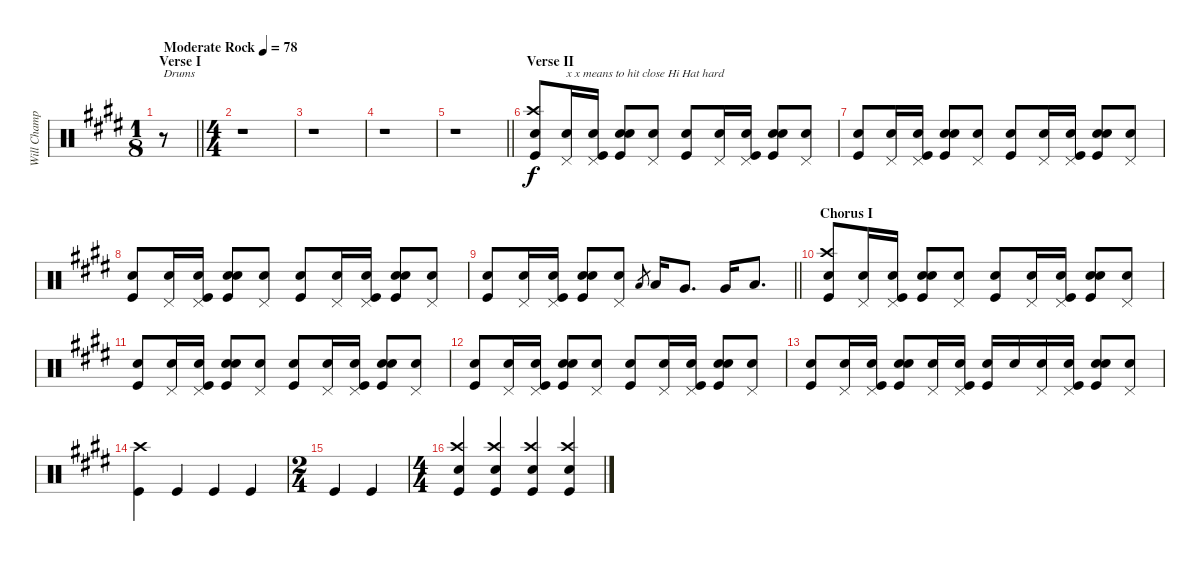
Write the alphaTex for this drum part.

\track ("Will Champion/Drums" "Will Champ") {instrument percussion}
\staff {score}
\articulation defaults
\ts (1 8)
\section ("" "Verse I")
\tempo (78 "Moderate Rock")
\clef neutral
\barLineRight lightlight
\ks c#minor
r.8{txt "Drums" dy f} |
\ts (4 4)
r.1 |
r.1 |
r.1 |
\barLineRight lightlight
r.1 |
\section ("" "Verse II")
("Snare (hit)" "Crash high (hit)" "Kick (hit)").8 ("Pedal Hi-Hat (hit)" "Snare (hit)").16{txt "x x means to hit close Hi Hat hard"} ("Snare (hit)" "Pedal Hi-Hat (hit)" "Kick (hit)").16 ("Snare (hit)" "Snare (hit) 2" "Kick (hit)").8 ("Pedal Hi-Hat (hit)" "Snare (hit)").8 ("Snare (hit)" "Kick (hit)").8 ("Pedal Hi-Hat (hit)" "Snare (hit)").16 ("Snare (hit)" "Pedal Hi-Hat (hit)" "Kick (hit)").16 ("Snare (hit)" "Snare (hit) 2" "Kick (hit)").8 ("Pedal Hi-Hat (hit)" "Snare (hit)").8 |
("Snare (hit)" "Kick (hit)").8 ("Pedal Hi-Hat (hit)" "Snare (hit)").16 ("Snare (hit)" "Pedal Hi-Hat (hit)" "Kick (hit)").16 ("Snare (hit)" "Snare (hit) 2" "Kick (hit)").8 ("Pedal Hi-Hat (hit)" "Snare (hit)").8 ("Snare (hit)" "Kick (hit)").8 ("Pedal Hi-Hat (hit)" "Snare (hit)").16 ("Snare (hit)" "Pedal Hi-Hat (hit)" "Kick (hit)").16 ("Snare (hit)" "Snare (hit) 2" "Kick (hit)").8 ("Pedal Hi-Hat (hit)" "Snare (hit)").8 |
("Snare (hit)" "Kick (hit)").8 ("Pedal Hi-Hat (hit)" "Snare (hit)").16 ("Snare (hit)" "Pedal Hi-Hat (hit)" "Kick (hit)").16 ("Snare (hit)" "Snare (hit) 2" "Kick (hit)").8 ("Pedal Hi-Hat (hit)" "Snare (hit)").8 ("Snare (hit)" "Kick (hit)").8 ("Pedal Hi-Hat (hit)" "Snare (hit)").16 ("Snare (hit)" "Pedal Hi-Hat (hit)" "Kick (hit)").16 ("Snare (hit)" "Snare (hit) 2" "Kick (hit)").8 ("Pedal Hi-Hat (hit)" "Snare (hit)").8 |
\barLineRight lightlight
("Snare (hit)" "Kick (hit)").8 ("Pedal Hi-Hat (hit)" "Snare (hit)").16 ("Snare (hit)" "Pedal Hi-Hat (hit)" "Kick (hit)").16 ("Snare (hit)" "Snare (hit) 2" "Kick (hit)").8 ("Pedal Hi-Hat (hit)" "Snare (hit)").8 "Low Tom (hit)".8{gr} "Low Tom (hit)".16 "Very Low Tom (hit)".8{d} "Very Low Tom (hit)".16 "Low Floor Tom (hit)".8{d} |
\section ("" "Chorus I")
("Snare (hit)" "Crash high (hit)" "Kick (hit)").8 ("Pedal Hi-Hat (hit)" "Snare (hit)").16 ("Snare (hit)" "Pedal Hi-Hat (hit)" "Kick (hit)").16 ("Snare (hit)" "Snare (hit) 2" "Kick (hit)").8 ("Pedal Hi-Hat (hit)" "Snare (hit)").8 ("Snare (hit)" "Kick (hit)").8 ("Pedal Hi-Hat (hit)" "Snare (hit)").16 ("Snare (hit)" "Pedal Hi-Hat (hit)" "Kick (hit)").16 ("Snare (hit)" "Snare (hit) 2" "Kick (hit)").8 ("Pedal Hi-Hat (hit)" "Snare (hit)").8 |
("Snare (hit)" "Kick (hit)").8 ("Pedal Hi-Hat (hit)" "Snare (hit)").16 ("Snare (hit)" "Pedal Hi-Hat (hit)" "Kick (hit)").16 ("Snare (hit)" "Snare (hit) 2" "Kick (hit)").8 ("Pedal Hi-Hat (hit)" "Snare (hit)").8 ("Snare (hit)" "Kick (hit)").8 ("Pedal Hi-Hat (hit)" "Snare (hit)").16 ("Snare (hit)" "Pedal Hi-Hat (hit)" "Kick (hit)").16 ("Snare (hit)" "Snare (hit) 2" "Kick (hit)").8 ("Pedal Hi-Hat (hit)" "Snare (hit)").8 |
("Snare (hit)" "Kick (hit)").8 ("Pedal Hi-Hat (hit)" "Snare (hit)").16 ("Snare (hit)" "Pedal Hi-Hat (hit)" "Kick (hit)").16 ("Snare (hit)" "Snare (hit) 2" "Kick (hit)").8 ("Pedal Hi-Hat (hit)" "Snare (hit)").8 ("Snare (hit)" "Kick (hit)").8 ("Pedal Hi-Hat (hit)" "Snare (hit)").16 ("Snare (hit)" "Pedal Hi-Hat (hit)" "Kick (hit)").16 ("Snare (hit)" "Snare (hit) 2" "Kick (hit)").8 ("Pedal Hi-Hat (hit)" "Snare (hit)").8 |
("Snare (hit)" "Kick (hit)").8 ("Pedal Hi-Hat (hit)" "Snare (hit)").16 ("Snare (hit)" "Pedal Hi-Hat (hit)" "Kick (hit)").16 ("Snare (hit)" "Snare (hit) 2" "Kick (hit)").8 ("Pedal Hi-Hat (hit)" "Snare (hit)").16 ("Pedal Hi-Hat (hit)" "Snare (hit)" "Kick (hit)").16 ("Snare (hit)" "Kick (hit)").16 "Snare (hit) 2".16 ("Snare (hit)" "Pedal Hi-Hat (hit)").16 ("Snare (hit)" "Pedal Hi-Hat (hit)" "Kick (hit)").16 ("Snare (hit)" "Snare (hit) 2" "Kick (hit)").8 ("Pedal Hi-Hat (hit)" "Snare (hit)").8 |
("Crash high (hit)" "Kick (hit)").4 "Kick (hit)".4 "Kick (hit)".4 "Kick (hit)".4 |
\ts (2 4)
"Kick (hit)".4 "Kick (hit)".4 |
\ts (4 4)
("Snare (hit)" "Crash high (hit)" "Kick (hit)").4 ("Snare (hit)" "Crash high (hit)" "Kick (hit)").4 ("Snare (hit)" "Crash high (hit)" "Kick (hit)").4 ("Snare (hit)" "Crash high (hit)" "Kick (hit)").4
